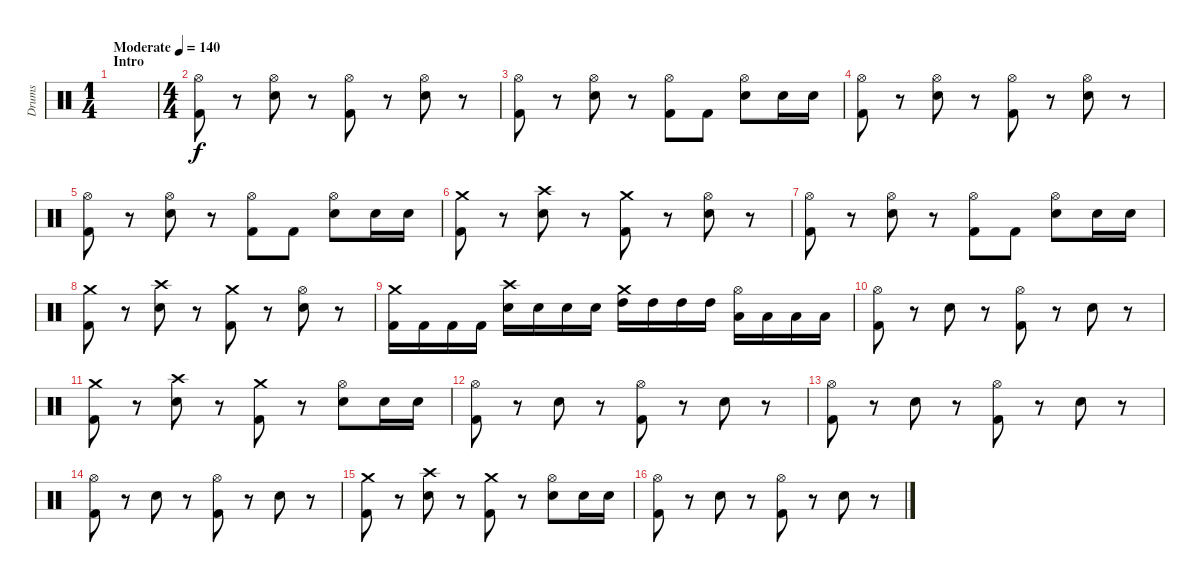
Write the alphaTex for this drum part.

\track ("Drums" "Drums") {instrument percussion}
\staff {score}
\articulation defaults
\ts (1 4)
\section ("" "Intro")
\tempo (140 "Moderate")
\clef neutral
\ks c
|
\ts (4 4)
("Hi-Hat (open)" "Kick (hit) 2").8 r.8 ("Hi-Hat (open)" "Snare (hit) 2").8 r.8 ("Hi-Hat (open)" "Kick (hit) 2").8 r.8 ("Hi-Hat (open)" "Snare (hit) 2").8 r.8 |
("Hi-Hat (open)" "Kick (hit) 2").8 r.8 ("Hi-Hat (open)" "Snare (hit) 2").8 r.8 ("Hi-Hat (open)" "Kick (hit) 2").8 "Kick (hit) 2".8 ("Hi-Hat (open)" "Snare (hit) 2").8 "Snare (hit) 2".16 "Snare (hit) 2".16 |
("Hi-Hat (open)" "Kick (hit) 2").8 r.8 ("Hi-Hat (open)" "Snare (hit) 2").8 r.8 ("Hi-Hat (open)" "Kick (hit) 2").8 r.8 ("Hi-Hat (open)" "Snare (hit) 2").8 r.8 |
("Hi-Hat (open)" "Kick (hit) 2").8 r.8 ("Hi-Hat (open)" "Snare (hit) 2").8 r.8 ("Hi-Hat (open)" "Kick (hit) 2").8 "Kick (hit) 2".8 ("Hi-Hat (open)" "Snare (hit) 2").8 "Snare (hit) 2".16 "Snare (hit) 2".16 |
("Crash medium (hit)" "Kick (hit) 2").8 r.8 ("Crash high (hit)" "Snare (hit) 2").8 r.8 ("Crash medium (hit)" "Kick (hit) 2").8 r.8 ("Hi-Hat (open)" "Snare (hit) 2").8 r.8 |
("Hi-Hat (open)" "Kick (hit) 2").8 r.8 ("Hi-Hat (open)" "Snare (hit) 2").8 r.8 ("Hi-Hat (open)" "Kick (hit) 2").8 "Kick (hit) 2".8 ("Hi-Hat (open)" "Snare (hit) 2").8 "Snare (hit) 2".16 "Snare (hit) 2".16 |
("Crash medium (hit)" "Kick (hit) 2").8 r.8 ("Crash high (hit)" "Snare (hit) 2").8 r.8 ("Crash medium (hit)" "Kick (hit) 2").8 r.8 ("Hi-Hat (open)" "Snare (hit) 2").8 r.8 |
("Crash medium (hit)" "Kick (hit) 2").16 "Kick (hit) 2".16 "Kick (hit) 2".16 "Kick (hit) 2".16 ("Crash high (hit)" "Snare (hit) 2").16 "Snare (hit) 2".16 "Snare (hit) 2".16 "Snare (hit) 2".16 ("Crash medium (hit)" "High Tom (hit)").16 "High Tom (hit)".16 "High Tom (hit)".16 "High Tom (hit)".16 ("Hi-Hat (open)" "Low Tom (hit)").16 "Low Tom (hit)".16 "Low Tom (hit)".16 "Low Tom (hit)".16 |
("Hi-Hat (open)" "Kick (hit) 2").8 r.8 "Snare (hit) 2".8 r.8 ("Hi-Hat (open)" "Kick (hit) 2").8 r.8 "Snare (hit) 2".8 r.8 |
("Crash medium (hit)" "Kick (hit) 2").8 r.8 ("Crash high (hit)" "Snare (hit) 2").8 r.8 ("Crash medium (hit)" "Kick (hit) 2").8 r.8 ("Hi-Hat (open)" "Snare (hit) 2").8 "Snare (hit) 2".16 "Snare (hit) 2".16 |
("Hi-Hat (open)" "Kick (hit) 2").8 r.8 "Snare (hit) 2".8 r.8 ("Hi-Hat (open)" "Kick (hit) 2").8 r.8 "Snare (hit) 2".8 r.8 |
("Hi-Hat (open)" "Kick (hit) 2").8 r.8 "Snare (hit) 2".8 r.8 ("Hi-Hat (open)" "Kick (hit) 2").8 r.8 "Snare (hit) 2".8 r.8 |
("Hi-Hat (open)" "Kick (hit) 2").8 r.8 "Snare (hit) 2".8 r.8 ("Hi-Hat (open)" "Kick (hit) 2").8 r.8 "Snare (hit) 2".8 r.8 |
("Crash medium (hit)" "Kick (hit) 2").8 r.8 ("Crash high (hit)" "Snare (hit) 2").8 r.8 ("Crash medium (hit)" "Kick (hit) 2").8 r.8 ("Hi-Hat (open)" "Snare (hit) 2").8 "Snare (hit) 2".16 "Snare (hit) 2".16 |
("Hi-Hat (open)" "Kick (hit) 2").8 r.8 "Snare (hit) 2".8 r.8 ("Hi-Hat (open)" "Kick (hit) 2").8 r.8 "Snare (hit) 2".8 r.8
